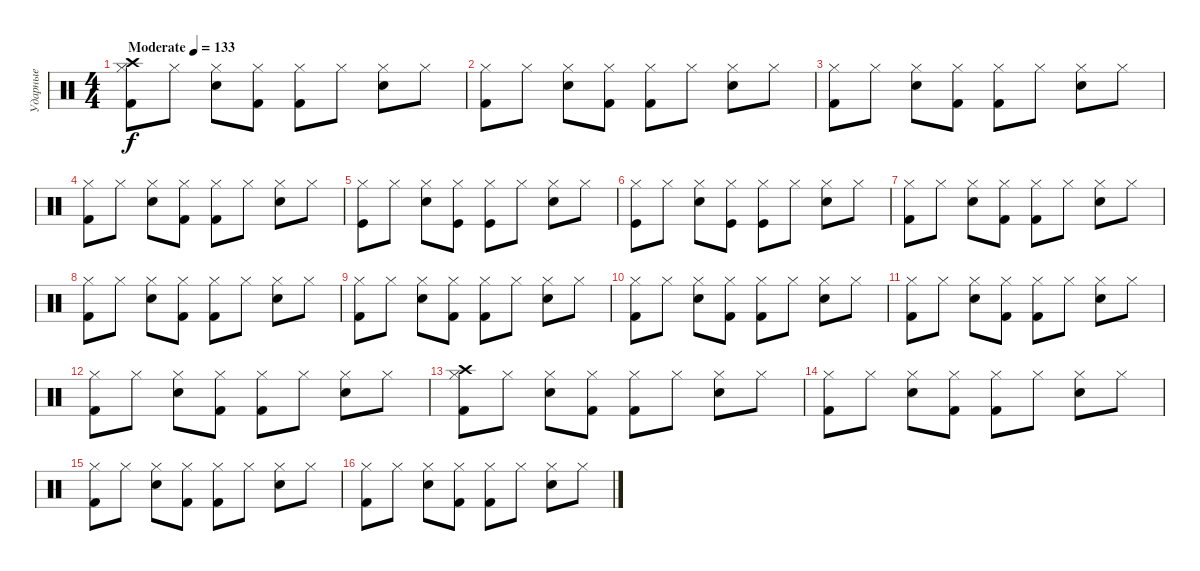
\track ("Ударные" "Ударные") {instrument percussion}
\staff {score}
\articulation defaults
\ts (4 4)
\tempo (133 "Moderate")
\clef neutral
\ks c
("Kick (hit) 2" "Crash high (hit)" "Hi-Hat (closed)").8{dy f} "Hi-Hat (closed)".8 ("Electric Snare (hit)" "Hi-Hat (closed)").8 ("Kick (hit) 2" "Hi-Hat (closed)").8 ("Kick (hit) 2" "Hi-Hat (closed)").8 "Hi-Hat (closed)".8 ("Electric Snare (hit)" "Hi-Hat (closed)").8 "Hi-Hat (closed)".8 |
("Kick (hit) 2" "Hi-Hat (closed)").8 "Hi-Hat (closed)".8 ("Electric Snare (hit)" "Hi-Hat (closed)").8 ("Kick (hit) 2" "Hi-Hat (closed)").8 ("Kick (hit) 2" "Hi-Hat (closed)").8 "Hi-Hat (closed)".8 ("Electric Snare (hit)" "Hi-Hat (closed)").8 "Hi-Hat (closed)".8 |
("Kick (hit) 2" "Hi-Hat (closed)").8 "Hi-Hat (closed)".8 ("Electric Snare (hit)" "Hi-Hat (closed)").8 ("Kick (hit) 2" "Hi-Hat (closed)").8 ("Kick (hit) 2" "Hi-Hat (closed)").8 "Hi-Hat (closed)".8 ("Electric Snare (hit)" "Hi-Hat (closed)").8 "Hi-Hat (closed)".8 |
("Kick (hit) 2" "Hi-Hat (closed)").8 "Hi-Hat (closed)".8 ("Electric Snare (hit)" "Hi-Hat (closed)").8 ("Kick (hit) 2" "Hi-Hat (closed)").8 ("Kick (hit) 2" "Hi-Hat (closed)").8 "Hi-Hat (closed)".8 ("Electric Snare (hit)" "Hi-Hat (closed)").8 "Hi-Hat (closed)".8 |
("Kick (hit)" "Hi-Hat (closed)").8 "Hi-Hat (closed)".8 ("Snare (hit) 2" "Hi-Hat (closed)").8 ("Kick (hit)" "Hi-Hat (closed)").8 ("Kick (hit)" "Hi-Hat (closed)").8 "Hi-Hat (closed)".8 ("Snare (hit) 2" "Hi-Hat (closed)").8 "Hi-Hat (closed)".8 |
("Kick (hit)" "Hi-Hat (closed)").8 "Hi-Hat (closed)".8 ("Snare (hit) 2" "Hi-Hat (closed)").8 ("Kick (hit)" "Hi-Hat (closed)").8 ("Kick (hit)" "Hi-Hat (closed)").8 "Hi-Hat (closed)".8 ("Snare (hit) 2" "Hi-Hat (closed)").8 "Hi-Hat (closed)".8 |
("Kick (hit) 2" "Hi-Hat (closed)").8 "Hi-Hat (closed)".8 ("Electric Snare (hit)" "Hi-Hat (closed)").8 ("Kick (hit) 2" "Hi-Hat (closed)").8 ("Kick (hit) 2" "Hi-Hat (closed)").8 "Hi-Hat (closed)".8 ("Electric Snare (hit)" "Hi-Hat (closed)").8 "Hi-Hat (closed)".8 |
("Kick (hit) 2" "Hi-Hat (closed)").8 "Hi-Hat (closed)".8 ("Electric Snare (hit)" "Hi-Hat (closed)").8 ("Kick (hit) 2" "Hi-Hat (closed)").8 ("Kick (hit) 2" "Hi-Hat (closed)").8 "Hi-Hat (closed)".8 ("Electric Snare (hit)" "Hi-Hat (closed)").8 "Hi-Hat (closed)".8 |
("Kick (hit) 2" "Hi-Hat (closed)").8 "Hi-Hat (closed)".8 ("Electric Snare (hit)" "Hi-Hat (closed)").8 ("Kick (hit) 2" "Hi-Hat (closed)").8 ("Kick (hit) 2" "Hi-Hat (closed)").8 "Hi-Hat (closed)".8 ("Electric Snare (hit)" "Hi-Hat (closed)").8 "Hi-Hat (closed)".8 |
("Kick (hit) 2" "Hi-Hat (closed)").8 "Hi-Hat (closed)".8 ("Electric Snare (hit)" "Hi-Hat (closed)").8 ("Kick (hit) 2" "Hi-Hat (closed)").8 ("Kick (hit) 2" "Hi-Hat (closed)").8 "Hi-Hat (closed)".8 ("Electric Snare (hit)" "Hi-Hat (closed)").8 "Hi-Hat (closed)".8 |
("Kick (hit) 2" "Hi-Hat (closed)").8 "Hi-Hat (closed)".8 ("Electric Snare (hit)" "Hi-Hat (closed)").8 ("Kick (hit) 2" "Hi-Hat (closed)").8 ("Kick (hit) 2" "Hi-Hat (closed)").8 "Hi-Hat (closed)".8 ("Electric Snare (hit)" "Hi-Hat (closed)").8 "Hi-Hat (closed)".8 |
("Kick (hit) 2" "Hi-Hat (closed)").8 "Hi-Hat (closed)".8 ("Electric Snare (hit)" "Hi-Hat (closed)").8 ("Kick (hit) 2" "Hi-Hat (closed)").8 ("Kick (hit) 2" "Hi-Hat (closed)").8 "Hi-Hat (closed)".8 ("Electric Snare (hit)" "Hi-Hat (closed)").8 "Hi-Hat (closed)".8 |
("Kick (hit) 2" "Crash high (hit)" "Hi-Hat (closed)").8 "Hi-Hat (closed)".8 ("Electric Snare (hit)" "Hi-Hat (closed)").8 ("Kick (hit) 2" "Hi-Hat (closed)").8 ("Kick (hit) 2" "Hi-Hat (closed)").8 "Hi-Hat (closed)".8 ("Electric Snare (hit)" "Hi-Hat (closed)").8 "Hi-Hat (closed)".8 |
("Kick (hit) 2" "Hi-Hat (closed)").8 "Hi-Hat (closed)".8 ("Electric Snare (hit)" "Hi-Hat (closed)").8 ("Kick (hit) 2" "Hi-Hat (closed)").8 ("Kick (hit) 2" "Hi-Hat (closed)").8 "Hi-Hat (closed)".8 ("Electric Snare (hit)" "Hi-Hat (closed)").8 "Hi-Hat (closed)".8 |
("Kick (hit) 2" "Hi-Hat (closed)").8 "Hi-Hat (closed)".8 ("Electric Snare (hit)" "Hi-Hat (closed)").8 ("Kick (hit) 2" "Hi-Hat (closed)").8 ("Kick (hit) 2" "Hi-Hat (closed)").8 "Hi-Hat (closed)".8 ("Electric Snare (hit)" "Hi-Hat (closed)").8 "Hi-Hat (closed)".8 |
("Kick (hit) 2" "Hi-Hat (closed)").8 "Hi-Hat (closed)".8 ("Electric Snare (hit)" "Hi-Hat (closed)").8 ("Kick (hit) 2" "Hi-Hat (closed)").8 ("Kick (hit) 2" "Hi-Hat (closed)").8 "Hi-Hat (closed)".8 ("Electric Snare (hit)" "Hi-Hat (closed)").8 "Hi-Hat (closed)".8
